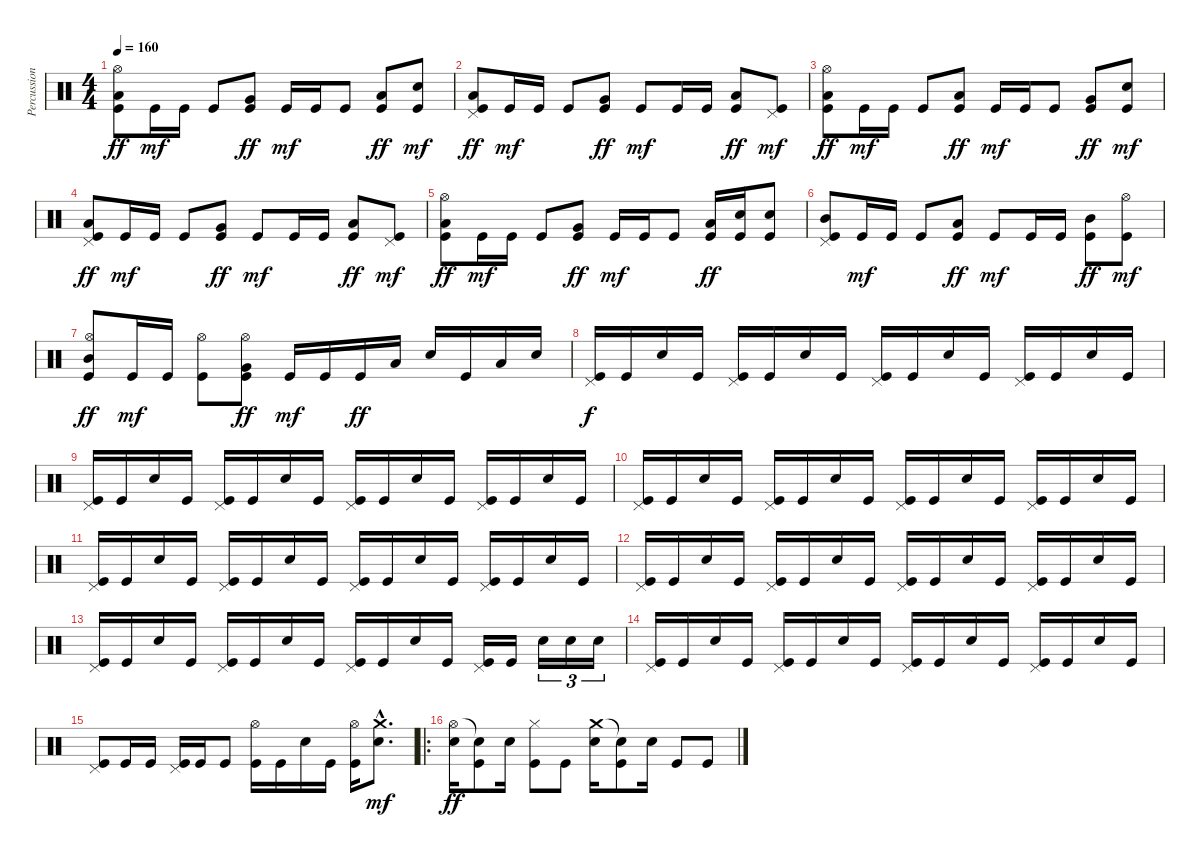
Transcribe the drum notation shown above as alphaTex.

\track ("Percussion" "Percussion") {instrument percussion}
\staff {score}
\articulation defaults
\ts (4 4)
\tempo 160
\clef neutral
\ks c
("Kick (hit)" "Low Tom (hit)" "Hi-Hat (open)").8{dy ff} "Kick (hit)".16{dy mf} "Kick (hit)".16 "Kick (hit)".8 ("Kick (hit)" "Very Low Tom (hit)").8{dy ff} "Kick (hit)".16{dy mf} "Kick (hit)".16 "Kick (hit)".8 ("Kick (hit)" "Low Floor Tom (hit)").8{dy ff} ("Kick (hit)" "Electric Snare (hit)").8{dy mf} |
("Kick (hit)" "Low Tom (hit)" "Pedal Hi-Hat (hit)").8{dy ff} "Kick (hit)".16{dy mf} "Kick (hit)".16 "Kick (hit)".8 ("Kick (hit)" "Very Low Tom (hit)").8{dy ff} "Kick (hit)".8{dy mf} "Kick (hit)".16 "Kick (hit)".16 ("Kick (hit)" "Low Tom (hit)").8{dy ff} ("Kick (hit)" "Pedal Hi-Hat (hit)").8{dy mf} |
("Kick (hit)" "Low Tom (hit)" "Hi-Hat (open)").8{dy ff} "Kick (hit)".16{dy mf} "Kick (hit)".16 "Kick (hit)".8 ("Kick (hit)" "Low Floor Tom (hit)").8{dy ff} "Kick (hit)".16{dy mf} "Kick (hit)".16 "Kick (hit)".8 ("Kick (hit)" "Very Low Tom (hit)").8{dy ff} ("Kick (hit)" "Electric Snare (hit)").8{dy mf} |
("Kick (hit)" "Low Tom (hit)" "Pedal Hi-Hat (hit)").8{dy ff} "Kick (hit)".16{dy mf} "Kick (hit)".16 "Kick (hit)".8 ("Kick (hit)" "Very Low Tom (hit)").8{dy ff} "Kick (hit)".8{dy mf} "Kick (hit)".16 "Kick (hit)".16 ("Kick (hit)" "Low Floor Tom (hit)").8{dy ff} ("Kick (hit)" "Pedal Hi-Hat (hit)").8{dy mf} |
("Kick (hit)" "Low Tom (hit)" "Hi-Hat (open)").8{dy ff} "Kick (hit)".16{dy mf} "Kick (hit)".16 "Kick (hit)".8 ("Kick (hit)" "Very Low Tom (hit)").8{dy ff} "Kick (hit)".16{dy mf} "Kick (hit)".16 "Kick (hit)".8 ("Kick (hit)" "Low Floor Tom (hit)").16{dy ff} ("Kick (hit)" "Electric Snare (hit)").16 ("Kick (hit)" "Snare (hit) 2").8 |
("Kick (hit)" "Mid Tom (hit)" "Pedal Hi-Hat (hit)").8 "Kick (hit)".16{dy mf} "Kick (hit)".16 "Kick (hit)".8 ("Kick (hit)" "Low Tom (hit)").8{dy ff} "Kick (hit)".8{dy mf} "Kick (hit)".16 "Kick (hit)".16 ("Kick (hit)" "Mid Tom (hit)").8{dy ff} ("Kick (hit)" "Hi-Hat (open)").8{dy mf} |
("Kick (hit)" "Mid Tom (hit)" "Hi-Hat (open)").8{dy ff} "Kick (hit)".16{dy mf} "Kick (hit)".16 ("Kick (hit)" "Hi-Hat (open)").8 ("Kick (hit)" "Very Low Tom (hit)" "Hi-Hat (open)").8{dy ff} "Kick (hit)".16{dy mf} "Kick (hit)".16 "Kick (hit)".16{dy ff} "Low Tom (hit)".16 "Electric Snare (hit)".16 "Kick (hit)".16 "Low Tom (hit)".16 "Electric Snare (hit)".16 |
("Kick (hit)" "Pedal Hi-Hat (hit)").16{dy f} "Kick (hit)".16 "Electric Snare (hit)".16 "Kick (hit)".16 ("Kick (hit)" "Pedal Hi-Hat (hit)").16 "Kick (hit)".16 "Electric Snare (hit)".16 "Kick (hit)".16 ("Kick (hit)" "Pedal Hi-Hat (hit)").16 "Kick (hit)".16 "Electric Snare (hit)".16 "Kick (hit)".16 ("Kick (hit)" "Pedal Hi-Hat (hit)").16 "Kick (hit)".16 "Electric Snare (hit)".16 "Kick (hit)".16 |
("Kick (hit)" "Pedal Hi-Hat (hit)").16 "Kick (hit)".16 "Electric Snare (hit)".16 "Kick (hit)".16 ("Kick (hit)" "Pedal Hi-Hat (hit)").16 "Kick (hit)".16 "Electric Snare (hit)".16 "Kick (hit)".16 ("Kick (hit)" "Pedal Hi-Hat (hit)").16 "Kick (hit)".16 "Electric Snare (hit)".16 "Kick (hit)".16 ("Kick (hit)" "Pedal Hi-Hat (hit)").16 "Kick (hit)".16 "Electric Snare (hit)".16 "Kick (hit)".16 |
("Kick (hit)" "Pedal Hi-Hat (hit)").16 "Kick (hit)".16 "Electric Snare (hit)".16 "Kick (hit)".16 ("Kick (hit)" "Pedal Hi-Hat (hit)").16 "Kick (hit)".16 "Electric Snare (hit)".16 "Kick (hit)".16 ("Kick (hit)" "Pedal Hi-Hat (hit)").16 "Kick (hit)".16 "Electric Snare (hit)".16 "Kick (hit)".16 ("Kick (hit)" "Pedal Hi-Hat (hit)").16 "Kick (hit)".16 "Electric Snare (hit)".16 "Kick (hit)".16 |
("Kick (hit)" "Pedal Hi-Hat (hit)").16 "Kick (hit)".16 "Electric Snare (hit)".16 "Kick (hit)".16 ("Kick (hit)" "Pedal Hi-Hat (hit)").16 "Kick (hit)".16 "Electric Snare (hit)".16 "Kick (hit)".16 ("Kick (hit)" "Pedal Hi-Hat (hit)").16 "Kick (hit)".16 "Electric Snare (hit)".16 "Kick (hit)".16 ("Kick (hit)" "Pedal Hi-Hat (hit)").16 "Kick (hit)".16 "Electric Snare (hit)".16 "Kick (hit)".16 |
("Kick (hit)" "Pedal Hi-Hat (hit)").16 "Kick (hit)".16 "Electric Snare (hit)".16 "Kick (hit)".16 ("Kick (hit)" "Pedal Hi-Hat (hit)").16 "Kick (hit)".16 "Electric Snare (hit)".16 "Kick (hit)".16 ("Kick (hit)" "Pedal Hi-Hat (hit)").16 "Kick (hit)".16 "Electric Snare (hit)".16 "Kick (hit)".16 ("Kick (hit)" "Pedal Hi-Hat (hit)").16 "Kick (hit)".16 "Electric Snare (hit)".16 "Kick (hit)".16 |
("Kick (hit)" "Pedal Hi-Hat (hit)").16 "Kick (hit)".16 "Electric Snare (hit)".16 "Kick (hit)".16 ("Kick (hit)" "Pedal Hi-Hat (hit)").16 "Kick (hit)".16 "Electric Snare (hit)".16 "Kick (hit)".16 ("Kick (hit)" "Pedal Hi-Hat (hit)").16 "Kick (hit)".16 "Electric Snare (hit)".16 "Kick (hit)".16 ("Kick (hit)" "Pedal Hi-Hat (hit)").16 "Kick (hit)".16 "Electric Snare (hit)".16{tu (3 2)} "Electric Snare (hit)".16{tu (3 2)} "Electric Snare (hit)".16{tu (3 2)} |
("Kick (hit)" "Pedal Hi-Hat (hit)").16 "Kick (hit)".16 "Electric Snare (hit)".16 "Kick (hit)".16 ("Kick (hit)" "Pedal Hi-Hat (hit)").16 "Kick (hit)".16 "Electric Snare (hit)".16 "Kick (hit)".16 ("Kick (hit)" "Pedal Hi-Hat (hit)").16 "Kick (hit)".16 "Electric Snare (hit)".16 "Kick (hit)".16 ("Kick (hit)" "Pedal Hi-Hat (hit)").16 "Kick (hit)".16 "Electric Snare (hit)".16 "Kick (hit)".16 |
("Kick (hit)" "Pedal Hi-Hat (hit)").8 "Kick (hit)".16 "Kick (hit)".16 ("Kick (hit)" "Pedal Hi-Hat (hit)").16 "Kick (hit)".16 "Kick (hit)".8 ("Kick (hit)" "Hi-Hat (open)").16 "Kick (hit)".16 "Snare (hit) 2".16 "Kick (hit)".16 ("Kick (hit)" "Hi-Hat (open)").16 ("Snare (hit) 2"{hac} "Crash medium (hit)"{hac}).8{d dy mf} |
\ro
("Electric Snare (hit)" "Hi-Hat (open)").16{dy ff} ("Kick (hit)" "Snare (hit)"{t}).8 "Electric Snare (hit)".16 ("Kick (hit)" "Hi-Hat (closed)").8 "Kick (hit)".8 ("Snare (hit) 2" "Crash medium (hit)").16 ("Kick (hit)" "Snare (hit)"{t}).8 "Snare (hit) 2".16 "Kick (hit)".8 "Kick (hit)".8
